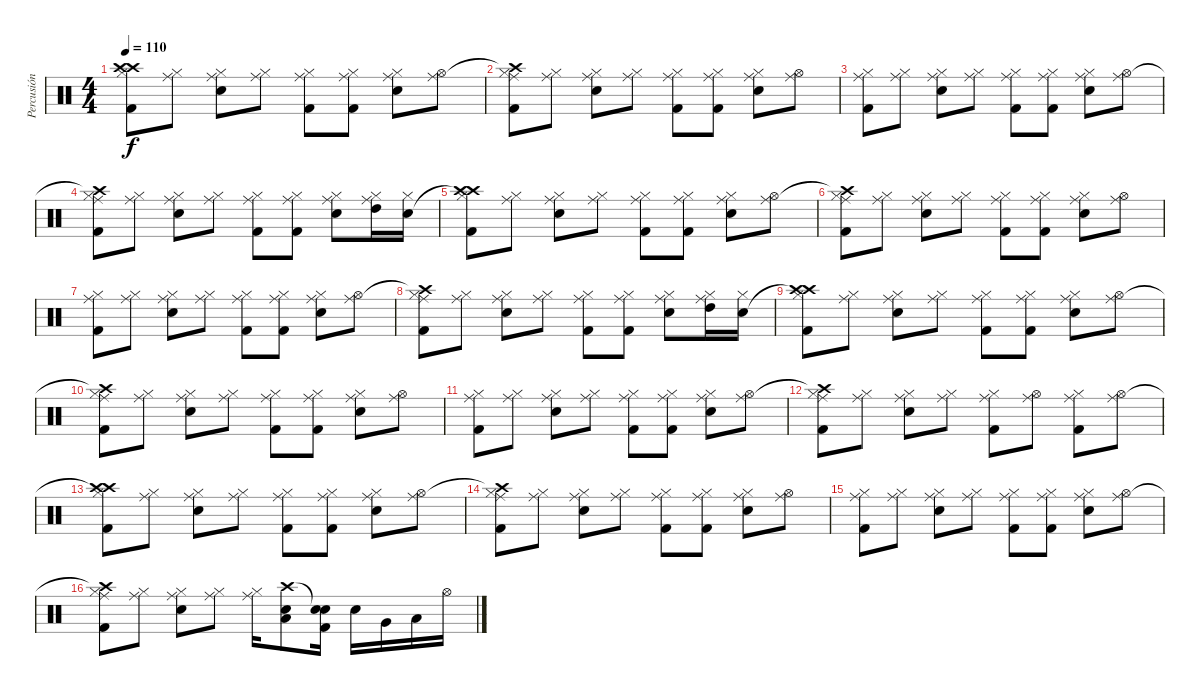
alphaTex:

\track ("Percusión" "Percusión") {instrument percussion}
\staff {score}
\articulation defaults
\ts (4 4)
\tempo 110
\clef neutral
\ks c
("Hi-Hat (closed)" "Crash high (hit)"{t} "Crash high (hit)" "Kick (hit) 2").8{dy f} ("Hi-Hat (closed)" "Ride (middle)").8 ("Hi-Hat (closed)" "Electric Snare (hit)" "Ride (middle)").8 ("Hi-Hat (closed)" "Ride (middle)").8 ("Hi-Hat (closed)" "Ride (middle)" "Kick (hit) 2").8 ("Hi-Hat (closed)" "Ride (middle)" "Kick (hit) 2").8 ("Hi-Hat (closed)" "Electric Snare (hit)" "Ride (middle)").8 ("Hi-Hat (open)" "Ride (middle)").8 |
("Hi-Hat (closed)" "Crash high (hit)"{t} "Ride (middle)" "Kick (hit) 2").8 ("Hi-Hat (closed)" "Ride (middle)").8 ("Hi-Hat (closed)" "Electric Snare (hit)" "Ride (middle)").8 ("Hi-Hat (closed)" "Ride (middle)").8 ("Hi-Hat (closed)" "Ride (middle)" "Kick (hit) 2").8 ("Hi-Hat (closed)" "Ride (middle)" "Kick (hit) 2").8 ("Hi-Hat (closed)" "Electric Snare (hit)" "Ride (middle)").8 ("Hi-Hat (open)" "Ride (middle)").8 |
("Hi-Hat (closed)" "Ride (middle)" "Kick (hit) 2").8 ("Hi-Hat (closed)" "Ride (middle)").8 ("Hi-Hat (closed)" "Electric Snare (hit)" "Ride (middle)").8 ("Hi-Hat (closed)" "Ride (middle)").8 ("Hi-Hat (closed)" "Ride (middle)" "Kick (hit) 2").8 ("Hi-Hat (closed)" "Ride (middle)" "Kick (hit) 2").8 ("Hi-Hat (closed)" "Electric Snare (hit)" "Ride (middle)").8 ("Hi-Hat (open)" "Ride (middle)").8 |
("Hi-Hat (closed)" "Crash high (hit)"{t} "Ride (middle)" "Kick (hit) 2").8 ("Hi-Hat (closed)" "Ride (middle)").8 ("Hi-Hat (closed)" "Electric Snare (hit)" "Ride (middle)").8 ("Hi-Hat (closed)" "Ride (middle)").8 ("Hi-Hat (closed)" "Ride (middle)" "Kick (hit) 2").8 ("Hi-Hat (closed)" "Ride (middle)" "Kick (hit) 2").8 ("Hi-Hat (closed)" "Electric Snare (hit)" "Ride (middle)").8 ("Hi-Hat (closed)" "High Tom (hit)" "Ride (middle)").16 ("Hi-Hat (closed)" "Electric Snare (hit)").16 |
("Hi-Hat (closed)" "Crash high (hit)"{t} "Crash high (hit)" "Kick (hit) 2").8 ("Hi-Hat (closed)" "Ride (middle)").8 ("Hi-Hat (closed)" "Electric Snare (hit)" "Ride (middle)").8 ("Hi-Hat (closed)" "Ride (middle)").8 ("Hi-Hat (closed)" "Ride (middle)" "Kick (hit) 2").8 ("Hi-Hat (closed)" "Ride (middle)" "Kick (hit) 2").8 ("Hi-Hat (closed)" "Electric Snare (hit)" "Ride (middle)").8 ("Hi-Hat (open)" "Ride (middle)").8 |
("Hi-Hat (closed)" "Crash high (hit)"{t} "Ride (middle)" "Kick (hit) 2").8 ("Hi-Hat (closed)" "Ride (middle)").8 ("Hi-Hat (closed)" "Electric Snare (hit)" "Ride (middle)").8 ("Hi-Hat (closed)" "Ride (middle)").8 ("Hi-Hat (closed)" "Ride (middle)" "Kick (hit) 2").8 ("Hi-Hat (closed)" "Ride (middle)" "Kick (hit) 2").8 ("Hi-Hat (closed)" "Electric Snare (hit)" "Ride (middle)").8 ("Hi-Hat (open)" "Ride (middle)").8 |
("Hi-Hat (closed)" "Ride (middle)" "Kick (hit) 2").8 ("Hi-Hat (closed)" "Ride (middle)").8 ("Hi-Hat (closed)" "Electric Snare (hit)" "Ride (middle)").8 ("Hi-Hat (closed)" "Ride (middle)").8 ("Hi-Hat (closed)" "Ride (middle)" "Kick (hit) 2").8 ("Hi-Hat (closed)" "Ride (middle)" "Kick (hit) 2").8 ("Hi-Hat (closed)" "Electric Snare (hit)" "Ride (middle)").8 ("Hi-Hat (open)" "Ride (middle)").8 |
("Hi-Hat (closed)" "Crash high (hit)"{t} "Ride (middle)" "Kick (hit) 2").8 ("Hi-Hat (closed)" "Ride (middle)").8 ("Hi-Hat (closed)" "Electric Snare (hit)" "Ride (middle)").8 ("Hi-Hat (closed)" "Ride (middle)").8 ("Hi-Hat (closed)" "Ride (middle)" "Kick (hit) 2").8 ("Hi-Hat (closed)" "Ride (middle)" "Kick (hit) 2").8 ("Hi-Hat (closed)" "Electric Snare (hit)" "Ride (middle)").8 ("Hi-Hat (closed)" "High Tom (hit)" "Ride (middle)").16 ("Hi-Hat (closed)" "Electric Snare (hit)").16 |
("Hi-Hat (closed)" "Crash high (hit)"{t} "Crash high (hit)" "Kick (hit) 2").8 ("Hi-Hat (closed)" "Ride (middle)").8 ("Hi-Hat (closed)" "Electric Snare (hit)" "Ride (middle)").8 ("Hi-Hat (closed)" "Ride (middle)").8 ("Hi-Hat (closed)" "Ride (middle)" "Kick (hit) 2").8 ("Hi-Hat (closed)" "Ride (middle)" "Kick (hit) 2").8 ("Hi-Hat (closed)" "Electric Snare (hit)" "Ride (middle)").8 ("Hi-Hat (open)" "Ride (middle)").8 |
("Hi-Hat (closed)" "Crash high (hit)"{t} "Ride (middle)" "Kick (hit) 2").8 ("Hi-Hat (closed)" "Ride (middle)").8 ("Hi-Hat (closed)" "Electric Snare (hit)" "Ride (middle)").8 ("Hi-Hat (closed)" "Ride (middle)").8 ("Hi-Hat (closed)" "Ride (middle)" "Kick (hit) 2").8 ("Hi-Hat (closed)" "Ride (middle)" "Kick (hit) 2").8 ("Hi-Hat (closed)" "Electric Snare (hit)" "Ride (middle)").8 ("Hi-Hat (open)" "Ride (middle)").8 |
("Hi-Hat (closed)" "Ride (middle)" "Kick (hit) 2").8 ("Hi-Hat (closed)" "Ride (middle)").8 ("Hi-Hat (closed)" "Electric Snare (hit)" "Ride (middle)").8 ("Hi-Hat (closed)" "Ride (middle)").8 ("Hi-Hat (closed)" "Ride (middle)" "Kick (hit) 2").8 ("Hi-Hat (closed)" "Ride (middle)" "Kick (hit) 2").8 ("Hi-Hat (closed)" "Electric Snare (hit)" "Ride (middle)").8 ("Hi-Hat (open)" "Ride (middle)").8 |
("Hi-Hat (closed)" "Crash high (hit)"{t} "Ride (middle)" "Kick (hit) 2").8 ("Hi-Hat (closed)" "Ride (middle)").8 ("Hi-Hat (closed)" "Electric Snare (hit)" "Ride (middle)").8 ("Hi-Hat (closed)" "Ride (middle)").8 ("Hi-Hat (closed)" "Ride (middle)" "Kick (hit) 2").8 ("Hi-Hat (open)" "Ride (middle)").8 ("Hi-Hat (closed)" "Ride (middle)" "Kick (hit) 2").8 ("Hi-Hat (open)" "Ride (middle)").8 |
("Hi-Hat (closed)" "Crash high (hit)"{t} "Crash high (hit)" "Kick (hit) 2").8 ("Hi-Hat (closed)" "Ride (middle)").8 ("Hi-Hat (closed)" "Electric Snare (hit)" "Ride (middle)").8 ("Hi-Hat (closed)" "Ride (middle)").8 ("Hi-Hat (closed)" "Ride (middle)" "Kick (hit) 2").8 ("Hi-Hat (closed)" "Ride (middle)" "Kick (hit) 2").8 ("Hi-Hat (closed)" "Electric Snare (hit)" "Ride (middle)").8 ("Hi-Hat (open)" "Ride (middle)").8 |
("Hi-Hat (closed)" "Crash high (hit)"{t} "Ride (middle)" "Kick (hit) 2").8 ("Hi-Hat (closed)" "Ride (middle)").8 ("Hi-Hat (closed)" "Electric Snare (hit)" "Ride (middle)").8 ("Hi-Hat (closed)" "Ride (middle)").8 ("Hi-Hat (closed)" "Ride (middle)" "Kick (hit) 2").8 ("Hi-Hat (closed)" "Ride (middle)" "Kick (hit) 2").8 ("Hi-Hat (closed)" "Electric Snare (hit)" "Ride (middle)").8 ("Hi-Hat (open)" "Ride (middle)").8 |
("Hi-Hat (closed)" "Ride (middle)" "Kick (hit) 2").8 ("Hi-Hat (closed)" "Ride (middle)").8 ("Hi-Hat (closed)" "Electric Snare (hit)" "Ride (middle)").8 ("Hi-Hat (closed)" "Ride (middle)").8 ("Hi-Hat (closed)" "Ride (middle)" "Kick (hit) 2").8 ("Hi-Hat (closed)" "Ride (middle)" "Kick (hit) 2").8 ("Hi-Hat (closed)" "Electric Snare (hit)" "Ride (middle)").8 ("Hi-Hat (open)" "Ride (middle)").8 |
("Hi-Hat (closed)" "Crash high (hit)"{t} "Ride (middle)" "Kick (hit) 2").8 ("Hi-Hat (closed)" "Ride (middle)").8 ("Hi-Hat (closed)" "Electric Snare (hit)" "Ride (middle)").8 ("Hi-Hat (closed)" "Ride (middle)").8 ("Hi-Hat (closed)" "Ride (middle)").16 ("Low Floor Tom (hit)" "Electric Snare (hit)" "Crash high (hit)").8 ("Electric Snare (hit)" "Kick (hit) 2" "Snare (hit)"{t}).16 "Electric Snare (hit)".16 "Very Low Tom (hit)".16 "Low Floor Tom (hit)".16 "Hi-Hat (open)".16
